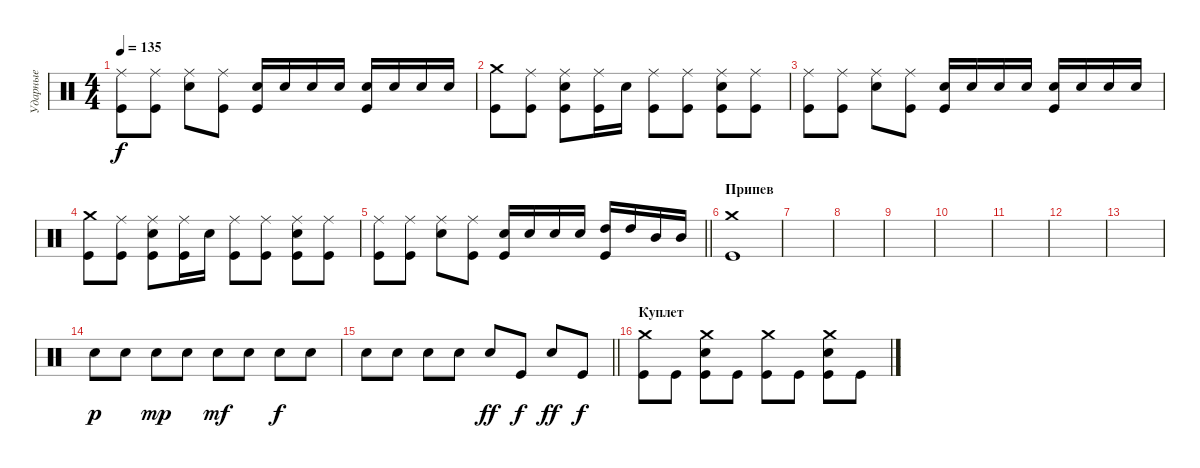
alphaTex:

\track ("Ударные" "Ударные") {instrument percussion}
\staff {score}
\articulation defaults
\ts (4 4)
\tempo 135
\clef neutral
\ks c
("Ride (middle)" "Kick (hit)").8{dy f} ("Ride (middle)" "Kick (hit)").8 ("Ride (middle)" "Electric Snare (hit)").8 ("Ride (middle)" "Kick (hit)").8 ("Electric Snare (hit)" "Kick (hit)").16 "Electric Snare (hit)".16 "Electric Snare (hit)".16 "Electric Snare (hit)".16 ("Electric Snare (hit)" "Kick (hit)").16 "Electric Snare (hit)".16 "Electric Snare (hit)".16 "Electric Snare (hit)".16 |
("Crash medium (hit)" "Kick (hit)").8 ("Ride (middle)" "Kick (hit)").8 ("Ride (middle)" "Electric Snare (hit)" "Kick (hit)").8 ("Ride (middle)" "Kick (hit)").16 "Electric Snare (hit)".16 ("Ride (middle)" "Kick (hit)").8 ("Ride (middle)" "Kick (hit)").8 ("Ride (middle)" "Electric Snare (hit)" "Kick (hit)").8 ("Ride (middle)" "Kick (hit)").8 |
("Ride (middle)" "Kick (hit)").8 ("Ride (middle)" "Kick (hit)").8 ("Ride (middle)" "Electric Snare (hit)").8 ("Ride (middle)" "Kick (hit)").8 ("Electric Snare (hit)" "Kick (hit)").16 "Electric Snare (hit)".16 "Electric Snare (hit)".16 "Electric Snare (hit)".16 ("Electric Snare (hit)" "Kick (hit)").16 "Electric Snare (hit)".16 "Electric Snare (hit)".16 "Electric Snare (hit)".16 |
("Crash medium (hit)" "Kick (hit)").8 ("Ride (middle)" "Kick (hit)").8 ("Ride (middle)" "Electric Snare (hit)" "Kick (hit)").8 ("Ride (middle)" "Kick (hit)").16 "Electric Snare (hit)".16 ("Ride (middle)" "Kick (hit)").8 ("Ride (middle)" "Kick (hit)").8 ("Ride (middle)" "Electric Snare (hit)" "Kick (hit)").8 ("Ride (middle)" "Kick (hit)").8 |
\barLineRight lightlight
("Ride (middle)" "Kick (hit)").8 ("Ride (middle)" "Kick (hit)").8 ("Ride (middle)" "Electric Snare (hit)").8 ("Ride (middle)" "Kick (hit)").8 ("Electric Snare (hit)" "Kick (hit)").16 "Electric Snare (hit)".16 "Electric Snare (hit)".16 "Electric Snare (hit)".16 ("High Tom (hit)" "Kick (hit)").16 "High Tom (hit)".16 "Mid Tom (hit)".16 "Mid Tom (hit)".16 |
\section ("" "Припев")
("Crash medium (hit)" "Kick (hit)").1 |
|
|
|
|
|
|
|
"Electric Snare (hit)".8{dy p} "Electric Snare (hit)".8 "Electric Snare (hit)".8{dy mp} "Electric Snare (hit)".8 "Electric Snare (hit)".8{dy mf} "Electric Snare (hit)".8 "Electric Snare (hit)".8{dy f} "Electric Snare (hit)".8 |
\barLineRight lightlight "Electric Snare (hit)".8 "Electric Snare (hit)".8 "Electric Snare (hit)".8 "Electric Snare (hit)".8 "Electric Snare (hit)".8{dy ff} "Kick (hit)".8{dy f} "Electric Snare (hit)".8{dy ff} "Kick (hit)".8{dy f}
|
\section ("" "Куплет")
("Crash medium (hit)" "Kick (hit)").8 "Kick (hit)".8 ("Crash medium (hit)" "Electric Snare (hit)" "Kick (hit)").8 "Kick (hit)".8 ("Crash medium (hit)" "Kick (hit)").8 "Kick (hit)".8 ("Crash medium (hit)" "Electric Snare (hit)" "Kick (hit)").8 "Kick (hit)".8
